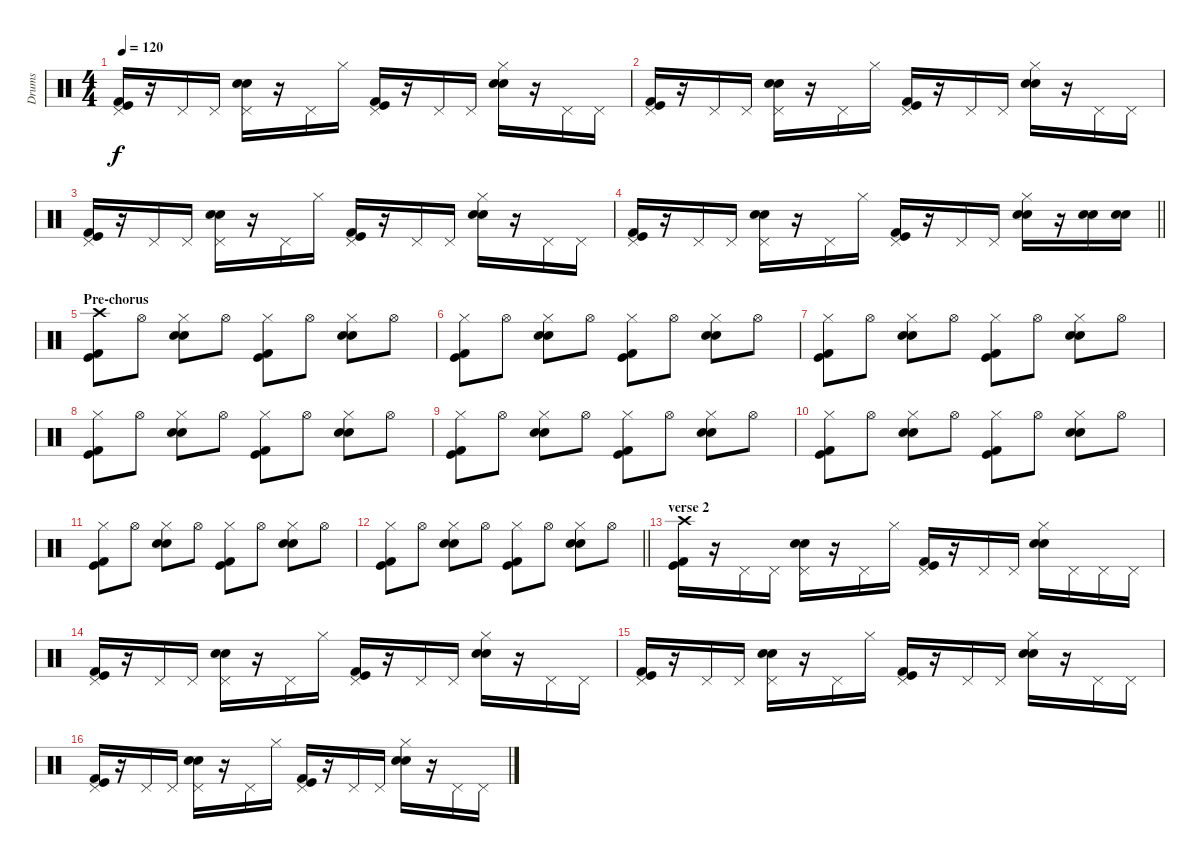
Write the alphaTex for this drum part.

\track ("Drums" "Drums") {instrument percussion}
\staff {score}
\articulation defaults
\ts (4 4)
\tempo 120
\clef neutral
\ks c
("Pedal Hi-Hat (hit)" "Kick (hit)" "Kick (hit) 2").16{dy f} r.16 "Pedal Hi-Hat (hit)".16 "Pedal Hi-Hat (hit)".16 ("Pedal Hi-Hat (hit)" "Electric Snare (hit)" "Electric Snare (hit)").16 r.16 "Pedal Hi-Hat (hit)".16 "Hi-Hat (closed)".16 ("Pedal Hi-Hat (hit)" "Kick (hit)" "Kick (hit) 2").16 r.16 "Pedal Hi-Hat (hit)".16 "Pedal Hi-Hat (hit)".16 ("Hi-Hat (closed)" "Electric Snare (hit)" "Electric Snare (hit)").16 r.16 "Pedal Hi-Hat (hit)".16 "Pedal Hi-Hat (hit)".16 |
("Pedal Hi-Hat (hit)" "Kick (hit)" "Kick (hit) 2").16 r.16 "Pedal Hi-Hat (hit)".16 "Pedal Hi-Hat (hit)".16 ("Pedal Hi-Hat (hit)" "Electric Snare (hit)" "Electric Snare (hit)").16 r.16 "Pedal Hi-Hat (hit)".16 "Hi-Hat (closed)".16 ("Pedal Hi-Hat (hit)" "Kick (hit)" "Kick (hit) 2").16 r.16 "Pedal Hi-Hat (hit)".16 "Pedal Hi-Hat (hit)".16 ("Hi-Hat (closed)" "Electric Snare (hit)" "Electric Snare (hit)").16 r.16 "Pedal Hi-Hat (hit)".16 "Pedal Hi-Hat (hit)".16 |
("Pedal Hi-Hat (hit)" "Kick (hit)" "Kick (hit) 2").16 r.16 "Pedal Hi-Hat (hit)".16 "Pedal Hi-Hat (hit)".16 ("Pedal Hi-Hat (hit)" "Electric Snare (hit)" "Electric Snare (hit)").16 r.16 "Pedal Hi-Hat (hit)".16 "Hi-Hat (closed)".16 ("Pedal Hi-Hat (hit)" "Kick (hit)" "Kick (hit) 2").16 r.16 "Pedal Hi-Hat (hit)".16 "Pedal Hi-Hat (hit)".16 ("Hi-Hat (closed)" "Electric Snare (hit)" "Electric Snare (hit)").16 r.16 "Pedal Hi-Hat (hit)".16 "Pedal Hi-Hat (hit)".16 |
\barLineRight lightlight
("Pedal Hi-Hat (hit)" "Kick (hit)" "Kick (hit) 2").16 r.16 "Pedal Hi-Hat (hit)".16 "Pedal Hi-Hat (hit)".16 ("Pedal Hi-Hat (hit)" "Electric Snare (hit)" "Electric Snare (hit)").16 r.16 "Pedal Hi-Hat (hit)".16 "Hi-Hat (closed)".16 ("Pedal Hi-Hat (hit)" "Kick (hit)" "Kick (hit) 2").16 r.16 "Pedal Hi-Hat (hit)".16 "Pedal Hi-Hat (hit)".16 ("Hi-Hat (closed)" "Electric Snare (hit)" "Electric Snare (hit)").16 r.16 ("Electric Snare (hit)" "Electric Snare (hit)").16 ("Electric Snare (hit)" "Electric Snare (hit)").16 |
\section ("" "Pre-chorus")
("Crash high (hit)" "Kick (hit) 2" "Kick (hit)").8 "Hi-Hat (open)".8 ("Hi-Hat (closed)" "Electric Snare (hit)" "Electric Snare (hit)").8 "Hi-Hat (open)".8 ("Hi-Hat (closed)" "Kick (hit) 2" "Kick (hit)").8 "Hi-Hat (open)".8 ("Hi-Hat (closed)" "Electric Snare (hit)" "Electric Snare (hit)").8 "Hi-Hat (open)".8 |
("Hi-Hat (closed)" "Kick (hit) 2" "Kick (hit)").8 "Hi-Hat (open)".8 ("Hi-Hat (closed)" "Electric Snare (hit)" "Electric Snare (hit)").8 "Hi-Hat (open)".8 ("Hi-Hat (closed)" "Kick (hit) 2" "Kick (hit)").8 "Hi-Hat (open)".8 ("Hi-Hat (closed)" "Electric Snare (hit)" "Electric Snare (hit)").8 "Hi-Hat (open)".8 |
("Hi-Hat (closed)" "Kick (hit) 2" "Kick (hit)").8 "Hi-Hat (open)".8 ("Hi-Hat (closed)" "Electric Snare (hit)" "Electric Snare (hit)").8 "Hi-Hat (open)".8 ("Hi-Hat (closed)" "Kick (hit) 2" "Kick (hit)").8 "Hi-Hat (open)".8 ("Hi-Hat (closed)" "Electric Snare (hit)" "Electric Snare (hit)").8 "Hi-Hat (open)".8 |
("Hi-Hat (closed)" "Kick (hit) 2" "Kick (hit)").8 "Hi-Hat (open)".8 ("Hi-Hat (closed)" "Electric Snare (hit)" "Electric Snare (hit)").8 "Hi-Hat (open)".8 ("Hi-Hat (closed)" "Kick (hit) 2" "Kick (hit)").8 "Hi-Hat (open)".8 ("Hi-Hat (closed)" "Electric Snare (hit)" "Electric Snare (hit)").8 "Hi-Hat (open)".8 |
("Hi-Hat (closed)" "Kick (hit) 2" "Kick (hit)").8 "Hi-Hat (open)".8 ("Hi-Hat (closed)" "Electric Snare (hit)" "Electric Snare (hit)").8 "Hi-Hat (open)".8 ("Hi-Hat (closed)" "Kick (hit) 2" "Kick (hit)").8 "Hi-Hat (open)".8 ("Hi-Hat (closed)" "Electric Snare (hit)" "Electric Snare (hit)").8 "Hi-Hat (open)".8 |
("Hi-Hat (closed)" "Kick (hit) 2" "Kick (hit)").8 "Hi-Hat (open)".8 ("Hi-Hat (closed)" "Electric Snare (hit)" "Electric Snare (hit)").8 "Hi-Hat (open)".8 ("Hi-Hat (closed)" "Kick (hit) 2" "Kick (hit)").8 "Hi-Hat (open)".8 ("Hi-Hat (closed)" "Electric Snare (hit)" "Electric Snare (hit)").8 "Hi-Hat (open)".8 |
("Hi-Hat (closed)" "Kick (hit) 2" "Kick (hit)").8 "Hi-Hat (open)".8 ("Hi-Hat (closed)" "Electric Snare (hit)" "Electric Snare (hit)").8 "Hi-Hat (open)".8 ("Hi-Hat (closed)" "Kick (hit) 2" "Kick (hit)").8 "Hi-Hat (open)".8 ("Hi-Hat (closed)" "Electric Snare (hit)" "Electric Snare (hit)").8 "Hi-Hat (open)".8 |
\barLineRight lightlight
("Hi-Hat (closed)" "Kick (hit) 2" "Kick (hit)").8 "Hi-Hat (open)".8 ("Hi-Hat (closed)" "Electric Snare (hit)" "Electric Snare (hit)").8 "Hi-Hat (open)".8 ("Hi-Hat (closed)" "Kick (hit) 2" "Kick (hit)").8 "Hi-Hat (open)".8 ("Hi-Hat (closed)" "Electric Snare (hit)" "Electric Snare (hit)").8 "Hi-Hat (open)".8 |
\section ("" "verse 2")
("Crash high (hit)" "Kick (hit)" "Kick (hit) 2").16 r.16 "Pedal Hi-Hat (hit)".16 "Pedal Hi-Hat (hit)".16 ("Pedal Hi-Hat (hit)" "Electric Snare (hit)" "Electric Snare (hit)").16 r.16 "Pedal Hi-Hat (hit)".16 "Hi-Hat (closed)".16 ("Pedal Hi-Hat (hit)" "Kick (hit)" "Kick (hit) 2").16 r.16 "Pedal Hi-Hat (hit)".16 "Pedal Hi-Hat (hit)".16 ("Hi-Hat (closed)" "Electric Snare (hit)" "Electric Snare (hit)").16 "Pedal Hi-Hat (hit)".16 "Pedal Hi-Hat (hit)".16 "Pedal Hi-Hat (hit)".16 |
("Pedal Hi-Hat (hit)" "Kick (hit)" "Kick (hit) 2").16 r.16 "Pedal Hi-Hat (hit)".16 "Pedal Hi-Hat (hit)".16 ("Pedal Hi-Hat (hit)" "Electric Snare (hit)" "Electric Snare (hit)").16 r.16 "Pedal Hi-Hat (hit)".16 "Hi-Hat (closed)".16 ("Pedal Hi-Hat (hit)" "Kick (hit)" "Kick (hit) 2").16 r.16 "Pedal Hi-Hat (hit)".16 "Pedal Hi-Hat (hit)".16 ("Hi-Hat (closed)" "Electric Snare (hit)" "Electric Snare (hit)").16 r.16 "Pedal Hi-Hat (hit)".16 "Pedal Hi-Hat (hit)".16 |
("Pedal Hi-Hat (hit)" "Kick (hit)" "Kick (hit) 2").16 r.16 "Pedal Hi-Hat (hit)".16 "Pedal Hi-Hat (hit)".16 ("Pedal Hi-Hat (hit)" "Electric Snare (hit)" "Electric Snare (hit)").16 r.16 "Pedal Hi-Hat (hit)".16 "Hi-Hat (closed)".16 ("Pedal Hi-Hat (hit)" "Kick (hit)" "Kick (hit) 2").16 r.16 "Pedal Hi-Hat (hit)".16 "Pedal Hi-Hat (hit)".16 ("Hi-Hat (closed)" "Electric Snare (hit)" "Electric Snare (hit)").16 r.16 "Pedal Hi-Hat (hit)".16 "Pedal Hi-Hat (hit)".16 |
("Pedal Hi-Hat (hit)" "Kick (hit)" "Kick (hit) 2").16 r.16 "Pedal Hi-Hat (hit)".16 "Pedal Hi-Hat (hit)".16 ("Pedal Hi-Hat (hit)" "Electric Snare (hit)" "Electric Snare (hit)").16 r.16 "Pedal Hi-Hat (hit)".16 "Hi-Hat (closed)".16 ("Pedal Hi-Hat (hit)" "Kick (hit)" "Kick (hit) 2").16 r.16 "Pedal Hi-Hat (hit)".16 "Pedal Hi-Hat (hit)".16 ("Hi-Hat (closed)" "Electric Snare (hit)" "Electric Snare (hit)").16 r.16 "Pedal Hi-Hat (hit)".16 "Pedal Hi-Hat (hit)".16
